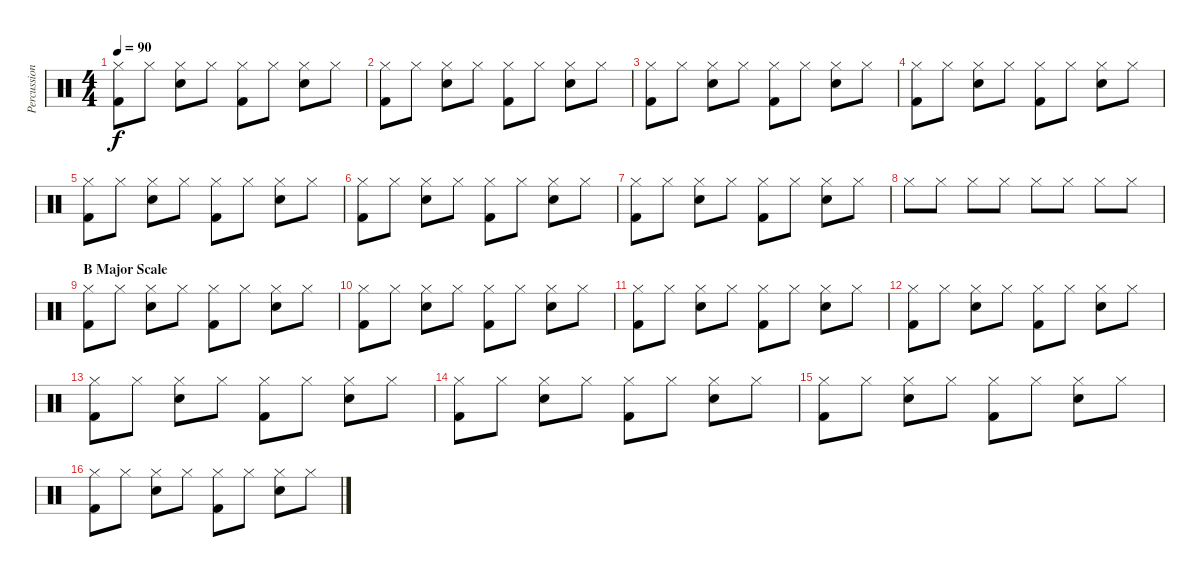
\track ("Percussion" "Percussion") {instrument percussion}
\staff {score}
\articulation defaults
\ts (4 4)
\tempo 90
\clef neutral
\ks c
("Kick (hit) 2" "Hi-Hat (closed)").8{dy f} "Hi-Hat (closed)".8 ("Snare (hit) 2" "Hi-Hat (closed)").8 "Hi-Hat (closed)".8 ("Kick (hit) 2" "Hi-Hat (closed)").8 "Hi-Hat (closed)".8 ("Snare (hit) 2" "Hi-Hat (closed)").8 "Hi-Hat (closed)".8 |
("Kick (hit) 2" "Hi-Hat (closed)").8 "Hi-Hat (closed)".8 ("Snare (hit) 2" "Hi-Hat (closed)").8 "Hi-Hat (closed)".8 ("Kick (hit) 2" "Hi-Hat (closed)").8 "Hi-Hat (closed)".8 ("Snare (hit) 2" "Hi-Hat (closed)").8 "Hi-Hat (closed)".8 |
("Kick (hit) 2" "Hi-Hat (closed)").8 "Hi-Hat (closed)".8 ("Snare (hit) 2" "Hi-Hat (closed)").8 "Hi-Hat (closed)".8 ("Kick (hit) 2" "Hi-Hat (closed)").8 "Hi-Hat (closed)".8 ("Snare (hit) 2" "Hi-Hat (closed)").8 "Hi-Hat (closed)".8 |
("Kick (hit) 2" "Hi-Hat (closed)").8 "Hi-Hat (closed)".8 ("Snare (hit) 2" "Hi-Hat (closed)").8 "Hi-Hat (closed)".8 ("Kick (hit) 2" "Hi-Hat (closed)").8 "Hi-Hat (closed)".8 ("Snare (hit) 2" "Hi-Hat (closed)").8 "Hi-Hat (closed)".8 |
("Kick (hit) 2" "Hi-Hat (closed)").8 "Hi-Hat (closed)".8 ("Snare (hit) 2" "Hi-Hat (closed)").8 "Hi-Hat (closed)".8 ("Kick (hit) 2" "Hi-Hat (closed)").8 "Hi-Hat (closed)".8 ("Snare (hit) 2" "Hi-Hat (closed)").8 "Hi-Hat (closed)".8 |
("Kick (hit) 2" "Hi-Hat (closed)").8 "Hi-Hat (closed)".8 ("Snare (hit) 2" "Hi-Hat (closed)").8 "Hi-Hat (closed)".8 ("Kick (hit) 2" "Hi-Hat (closed)").8 "Hi-Hat (closed)".8 ("Snare (hit) 2" "Hi-Hat (closed)").8 "Hi-Hat (closed)".8 |
("Kick (hit) 2" "Hi-Hat (closed)").8 "Hi-Hat (closed)".8 ("Snare (hit) 2" "Hi-Hat (closed)").8 "Hi-Hat (closed)".8 ("Kick (hit) 2" "Hi-Hat (closed)").8 "Hi-Hat (closed)".8 ("Snare (hit) 2" "Hi-Hat (closed)").8 "Hi-Hat (closed)".8 |
"Hi-Hat (closed)".8 "Hi-Hat (closed)".8 "Hi-Hat (closed)".8 "Hi-Hat (closed)".8 "Hi-Hat (closed)".8 "Hi-Hat (closed)".8 "Hi-Hat (closed)".8 "Hi-Hat (closed)".8 |
\section ("" "B Major Scale")
("Kick (hit) 2" "Hi-Hat (closed)").8 "Hi-Hat (closed)".8 ("Snare (hit) 2" "Hi-Hat (closed)").8 "Hi-Hat (closed)".8 ("Kick (hit) 2" "Hi-Hat (closed)").8 "Hi-Hat (closed)".8 ("Snare (hit) 2" "Hi-Hat (closed)").8 "Hi-Hat (closed)".8 |
("Kick (hit) 2" "Hi-Hat (closed)").8 "Hi-Hat (closed)".8 ("Snare (hit) 2" "Hi-Hat (closed)").8 "Hi-Hat (closed)".8 ("Kick (hit) 2" "Hi-Hat (closed)").8 "Hi-Hat (closed)".8 ("Snare (hit) 2" "Hi-Hat (closed)").8 "Hi-Hat (closed)".8 |
("Kick (hit) 2" "Hi-Hat (closed)").8 "Hi-Hat (closed)".8 ("Snare (hit) 2" "Hi-Hat (closed)").8 "Hi-Hat (closed)".8 ("Kick (hit) 2" "Hi-Hat (closed)").8 "Hi-Hat (closed)".8 ("Snare (hit) 2" "Hi-Hat (closed)").8 "Hi-Hat (closed)".8 |
("Kick (hit) 2" "Hi-Hat (closed)").8 "Hi-Hat (closed)".8 ("Snare (hit) 2" "Hi-Hat (closed)").8 "Hi-Hat (closed)".8 ("Kick (hit) 2" "Hi-Hat (closed)").8 "Hi-Hat (closed)".8 ("Snare (hit) 2" "Hi-Hat (closed)").8 "Hi-Hat (closed)".8 |
("Kick (hit) 2" "Hi-Hat (closed)").8 "Hi-Hat (closed)".8 ("Snare (hit) 2" "Hi-Hat (closed)").8 "Hi-Hat (closed)".8 ("Kick (hit) 2" "Hi-Hat (closed)").8 "Hi-Hat (closed)".8 ("Snare (hit) 2" "Hi-Hat (closed)").8 "Hi-Hat (closed)".8 |
("Kick (hit) 2" "Hi-Hat (closed)").8 "Hi-Hat (closed)".8 ("Snare (hit) 2" "Hi-Hat (closed)").8 "Hi-Hat (closed)".8 ("Kick (hit) 2" "Hi-Hat (closed)").8 "Hi-Hat (closed)".8 ("Snare (hit) 2" "Hi-Hat (closed)").8 "Hi-Hat (closed)".8 |
("Kick (hit) 2" "Hi-Hat (closed)").8 "Hi-Hat (closed)".8 ("Snare (hit) 2" "Hi-Hat (closed)").8 "Hi-Hat (closed)".8 ("Kick (hit) 2" "Hi-Hat (closed)").8 "Hi-Hat (closed)".8 ("Snare (hit) 2" "Hi-Hat (closed)").8 "Hi-Hat (closed)".8 |
("Kick (hit) 2" "Hi-Hat (closed)").8 "Hi-Hat (closed)".8 ("Snare (hit) 2" "Hi-Hat (closed)").8 "Hi-Hat (closed)".8 ("Kick (hit) 2" "Hi-Hat (closed)").8 "Hi-Hat (closed)".8 ("Snare (hit) 2" "Hi-Hat (closed)").8 "Hi-Hat (closed)".8
